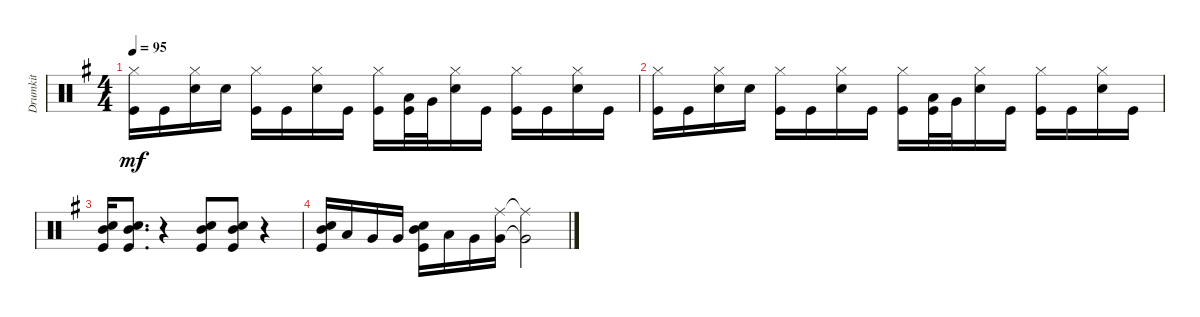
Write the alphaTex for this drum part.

\track ("Drumkit" "Drumkit") {solo instrument percussion}
\staff {score}
\articulation defaults
\ts (4 4)
\tempo 95
\clef neutral
\ks g
("Kick (hit)" "Hi-Hat (closed)").16{dy mf} "Kick (hit)".16 ("Snare (hit) 2" "Hi-Hat (closed)").16 "Snare (hit) 2".16 ("Kick (hit)" "Hi-Hat (closed)").16 "Kick (hit)".16 ("Snare (hit) 2" "Hi-Hat (closed)").16 "Kick (hit)".16 ("Kick (hit)" "Hi-Hat (closed)").16 ("Kick (hit)" "Low Tom (hit)").32 "Very Low Tom (hit)".32 ("Snare (hit) 2" "Hi-Hat (closed)").16 "Kick (hit)".16 ("Kick (hit)" "Hi-Hat (closed)").16 "Kick (hit)".16 ("Snare (hit) 2" "Hi-Hat (closed)").16 "Kick (hit)".16 |
("Kick (hit)" "Hi-Hat (closed)").16 "Kick (hit)".16 ("Snare (hit) 2" "Hi-Hat (closed)").16 "Snare (hit) 2".16 ("Kick (hit)" "Hi-Hat (closed)").16 "Kick (hit)".16 ("Snare (hit) 2" "Hi-Hat (closed)").16 "Kick (hit)".16 ("Kick (hit)" "Hi-Hat (closed)").16 ("Kick (hit)" "Low Tom (hit)").32 "Very Low Tom (hit)".32 ("Snare (hit) 2" "Hi-Hat (closed)").16 "Kick (hit)".16 ("Kick (hit)" "Hi-Hat (closed)").16 "Kick (hit)".16 ("Snare (hit) 2" "Hi-Hat (closed)").16 "Kick (hit)".16 |
("Kick (hit)" "Mid Tom (hit)" "Snare (hit) 2").16 ("Kick (hit)" "Snare (hit) 2" "Mid Tom (hit)").8{d} r.4 ("Kick (hit)" "Snare (hit) 2" "Mid Tom (hit)").8 ("Kick (hit)" "Snare (hit) 2" "Mid Tom (hit)").8 r.4 |
("Kick (hit)" "Snare (hit) 2" "Mid Tom (hit)").16 "Low Tom (hit)".16 "Very Low Tom (hit)".16 "Very Low Tom (hit)".16 ("Kick (hit)" "Snare (hit) 2" "Mid Tom (hit)").16 "Low Tom (hit)".16 "Very Low Tom (hit)".16 ("Very Low Tom (hit)" "Ride (middle)").16 ("Very Low Tom (hit)"{t} "Ride (middle)"{t}).2
